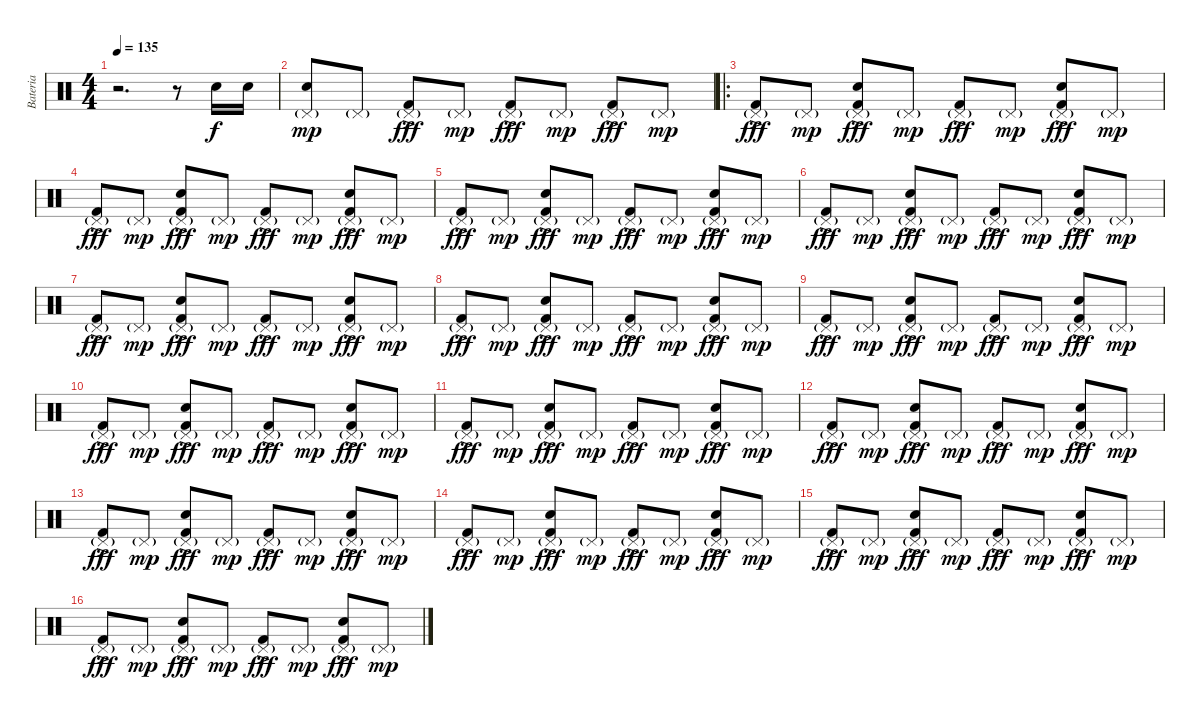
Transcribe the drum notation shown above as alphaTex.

\track ("Bateria" "Bateria") {instrument percussion}
\staff {score}
\articulation defaults
\ts (4 4)
\tempo 135
\clef neutral
\ks c
r.2{d dy f} r.8 "Snare (hit) 2".16 "Snare (hit) 2".16 |
("Pedal Hi-Hat (hit)"{g} "Snare (hit) 2").8{dy mp} "Pedal Hi-Hat (hit)"{g}.8 ("Pedal Hi-Hat (hit)"{g} "Kick (hit) 2"{ac}).8{dy fff} "Pedal Hi-Hat (hit)"{g}.8{dy mp} ("Pedal Hi-Hat (hit)"{g} "Kick (hit) 2"{ac}).8{dy fff} "Pedal Hi-Hat (hit)"{g}.8{dy mp} ("Pedal Hi-Hat (hit)"{g} "Kick (hit) 2"{ac}).8{dy fff} "Pedal Hi-Hat (hit)"{g}.8{dy mp} |
\ro
("Pedal Hi-Hat (hit)"{g} "Kick (hit) 2"{ac}).8{dy fff} "Pedal Hi-Hat (hit)"{g}.8{dy mp} ("Pedal Hi-Hat (hit)"{g} "Snare (hit) 2" "Kick (hit) 2"{ac}).8{dy fff} "Pedal Hi-Hat (hit)"{g}.8{dy mp} ("Pedal Hi-Hat (hit)"{g} "Kick (hit) 2"{ac}).8{dy fff} "Pedal Hi-Hat (hit)"{g}.8{dy mp} ("Pedal Hi-Hat (hit)"{g} "Snare (hit) 2" "Kick (hit) 2"{ac}).8{dy fff} "Pedal Hi-Hat (hit)"{g}.8{dy mp} |
("Pedal Hi-Hat (hit)"{g} "Kick (hit) 2"{ac}).8{dy fff} "Pedal Hi-Hat (hit)"{g}.8{dy mp} ("Pedal Hi-Hat (hit)"{g} "Snare (hit) 2" "Kick (hit) 2"{ac}).8{dy fff} "Pedal Hi-Hat (hit)"{g}.8{dy mp} ("Pedal Hi-Hat (hit)"{g} "Kick (hit) 2"{ac}).8{dy fff} "Pedal Hi-Hat (hit)"{g}.8{dy mp} ("Pedal Hi-Hat (hit)"{g} "Snare (hit) 2" "Kick (hit) 2"{ac}).8{dy fff} "Pedal Hi-Hat (hit)"{g}.8{dy mp} |
("Pedal Hi-Hat (hit)"{g} "Kick (hit) 2"{ac}).8{dy fff} "Pedal Hi-Hat (hit)"{g}.8{dy mp} ("Pedal Hi-Hat (hit)"{g} "Snare (hit) 2" "Kick (hit) 2"{ac}).8{dy fff} "Pedal Hi-Hat (hit)"{g}.8{dy mp} ("Pedal Hi-Hat (hit)"{g} "Kick (hit) 2"{ac}).8{dy fff} "Pedal Hi-Hat (hit)"{g}.8{dy mp} ("Pedal Hi-Hat (hit)"{g} "Snare (hit) 2" "Kick (hit) 2"{ac}).8{dy fff} "Pedal Hi-Hat (hit)"{g}.8{dy mp} |
("Pedal Hi-Hat (hit)"{g} "Kick (hit) 2"{ac}).8{dy fff} "Pedal Hi-Hat (hit)"{g}.8{dy mp} ("Pedal Hi-Hat (hit)"{g} "Snare (hit) 2" "Kick (hit) 2"{ac}).8{dy fff} "Pedal Hi-Hat (hit)"{g}.8{dy mp} ("Pedal Hi-Hat (hit)"{g} "Kick (hit) 2"{ac}).8{dy fff} "Pedal Hi-Hat (hit)"{g}.8{dy mp} ("Pedal Hi-Hat (hit)"{g} "Snare (hit) 2" "Kick (hit) 2"{ac}).8{dy fff} "Pedal Hi-Hat (hit)"{g}.8{dy mp} |
("Pedal Hi-Hat (hit)"{g} "Kick (hit) 2"{ac}).8{dy fff} "Pedal Hi-Hat (hit)"{g}.8{dy mp} ("Pedal Hi-Hat (hit)"{g} "Snare (hit) 2" "Kick (hit) 2"{ac}).8{dy fff} "Pedal Hi-Hat (hit)"{g}.8{dy mp} ("Pedal Hi-Hat (hit)"{g} "Kick (hit) 2"{ac}).8{dy fff} "Pedal Hi-Hat (hit)"{g}.8{dy mp} ("Pedal Hi-Hat (hit)"{g} "Snare (hit) 2" "Kick (hit) 2"{ac}).8{dy fff} "Pedal Hi-Hat (hit)"{g}.8{dy mp} |
("Pedal Hi-Hat (hit)"{g} "Kick (hit) 2"{ac}).8{dy fff} "Pedal Hi-Hat (hit)"{g}.8{dy mp} ("Pedal Hi-Hat (hit)"{g} "Snare (hit) 2" "Kick (hit) 2"{ac}).8{dy fff} "Pedal Hi-Hat (hit)"{g}.8{dy mp} ("Pedal Hi-Hat (hit)"{g} "Kick (hit) 2"{ac}).8{dy fff} "Pedal Hi-Hat (hit)"{g}.8{dy mp} ("Pedal Hi-Hat (hit)"{g} "Snare (hit) 2" "Kick (hit) 2"{ac}).8{dy fff} "Pedal Hi-Hat (hit)"{g}.8{dy mp} |
("Pedal Hi-Hat (hit)"{g} "Kick (hit) 2"{ac}).8{dy fff} "Pedal Hi-Hat (hit)"{g}.8{dy mp} ("Pedal Hi-Hat (hit)"{g} "Snare (hit) 2" "Kick (hit) 2"{ac}).8{dy fff} "Pedal Hi-Hat (hit)"{g}.8{dy mp} ("Pedal Hi-Hat (hit)"{g} "Kick (hit) 2"{ac}).8{dy fff} "Pedal Hi-Hat (hit)"{g}.8{dy mp} ("Pedal Hi-Hat (hit)"{g} "Snare (hit) 2" "Kick (hit) 2"{ac}).8{dy fff} "Pedal Hi-Hat (hit)"{g}.8{dy mp} |
("Pedal Hi-Hat (hit)"{g} "Kick (hit) 2"{ac}).8{dy fff} "Pedal Hi-Hat (hit)"{g}.8{dy mp} ("Pedal Hi-Hat (hit)"{g} "Snare (hit) 2" "Kick (hit) 2"{ac}).8{dy fff} "Pedal Hi-Hat (hit)"{g}.8{dy mp} ("Pedal Hi-Hat (hit)"{g} "Kick (hit) 2"{ac}).8{dy fff} "Pedal Hi-Hat (hit)"{g}.8{dy mp} ("Pedal Hi-Hat (hit)"{g} "Snare (hit) 2" "Kick (hit) 2"{ac}).8{dy fff} "Pedal Hi-Hat (hit)"{g}.8{dy mp} |
("Pedal Hi-Hat (hit)"{g} "Kick (hit) 2"{ac}).8{dy fff} "Pedal Hi-Hat (hit)"{g}.8{dy mp} ("Pedal Hi-Hat (hit)"{g} "Snare (hit) 2" "Kick (hit) 2"{ac}).8{dy fff} "Pedal Hi-Hat (hit)"{g}.8{dy mp} ("Pedal Hi-Hat (hit)"{g} "Kick (hit) 2"{ac}).8{dy fff} "Pedal Hi-Hat (hit)"{g}.8{dy mp} ("Pedal Hi-Hat (hit)"{g} "Snare (hit) 2" "Kick (hit) 2"{ac}).8{dy fff} "Pedal Hi-Hat (hit)"{g}.8{dy mp} |
("Pedal Hi-Hat (hit)"{g} "Kick (hit) 2"{ac}).8{dy fff} "Pedal Hi-Hat (hit)"{g}.8{dy mp} ("Pedal Hi-Hat (hit)"{g} "Snare (hit) 2" "Kick (hit) 2"{ac}).8{dy fff} "Pedal Hi-Hat (hit)"{g}.8{dy mp} ("Pedal Hi-Hat (hit)"{g} "Kick (hit) 2"{ac}).8{dy fff} "Pedal Hi-Hat (hit)"{g}.8{dy mp} ("Pedal Hi-Hat (hit)"{g} "Snare (hit) 2" "Kick (hit) 2"{ac}).8{dy fff} "Pedal Hi-Hat (hit)"{g}.8{dy mp} |
("Pedal Hi-Hat (hit)"{g} "Kick (hit) 2"{ac}).8{dy fff} "Pedal Hi-Hat (hit)"{g}.8{dy mp} ("Pedal Hi-Hat (hit)"{g} "Snare (hit) 2" "Kick (hit) 2"{ac}).8{dy fff} "Pedal Hi-Hat (hit)"{g}.8{dy mp} ("Pedal Hi-Hat (hit)"{g} "Kick (hit) 2"{ac}).8{dy fff} "Pedal Hi-Hat (hit)"{g}.8{dy mp} ("Pedal Hi-Hat (hit)"{g} "Snare (hit) 2" "Kick (hit) 2"{ac}).8{dy fff} "Pedal Hi-Hat (hit)"{g}.8{dy mp} |
("Pedal Hi-Hat (hit)"{g} "Kick (hit) 2"{ac}).8{dy fff} "Pedal Hi-Hat (hit)"{g}.8{dy mp} ("Pedal Hi-Hat (hit)"{g} "Snare (hit) 2" "Kick (hit) 2"{ac}).8{dy fff} "Pedal Hi-Hat (hit)"{g}.8{dy mp} ("Pedal Hi-Hat (hit)"{g} "Kick (hit) 2"{ac}).8{dy fff} "Pedal Hi-Hat (hit)"{g}.8{dy mp} ("Pedal Hi-Hat (hit)"{g} "Snare (hit) 2" "Kick (hit) 2"{ac}).8{dy fff} "Pedal Hi-Hat (hit)"{g}.8{dy mp} |
("Pedal Hi-Hat (hit)"{g} "Kick (hit) 2"{ac}).8{dy fff} "Pedal Hi-Hat (hit)"{g}.8{dy mp} ("Pedal Hi-Hat (hit)"{g} "Snare (hit) 2" "Kick (hit) 2"{ac}).8{dy fff} "Pedal Hi-Hat (hit)"{g}.8{dy mp} ("Pedal Hi-Hat (hit)"{g} "Kick (hit) 2"{ac}).8{dy fff} "Pedal Hi-Hat (hit)"{g}.8{dy mp} ("Pedal Hi-Hat (hit)"{g} "Snare (hit) 2" "Kick (hit) 2"{ac}).8{dy fff} "Pedal Hi-Hat (hit)"{g}.8{dy mp} |
("Pedal Hi-Hat (hit)"{g} "Kick (hit) 2"{ac}).8{dy fff} "Pedal Hi-Hat (hit)"{g}.8{dy mp} ("Pedal Hi-Hat (hit)"{g} "Snare (hit) 2" "Kick (hit) 2"{ac}).8{dy fff} "Pedal Hi-Hat (hit)"{g}.8{dy mp} ("Pedal Hi-Hat (hit)"{g} "Kick (hit) 2"{ac}).8{dy fff} "Pedal Hi-Hat (hit)"{g}.8{dy mp} ("Pedal Hi-Hat (hit)"{g} "Snare (hit) 2" "Kick (hit) 2"{ac}).8{dy fff} "Pedal Hi-Hat (hit)"{g}.8{dy mp}
